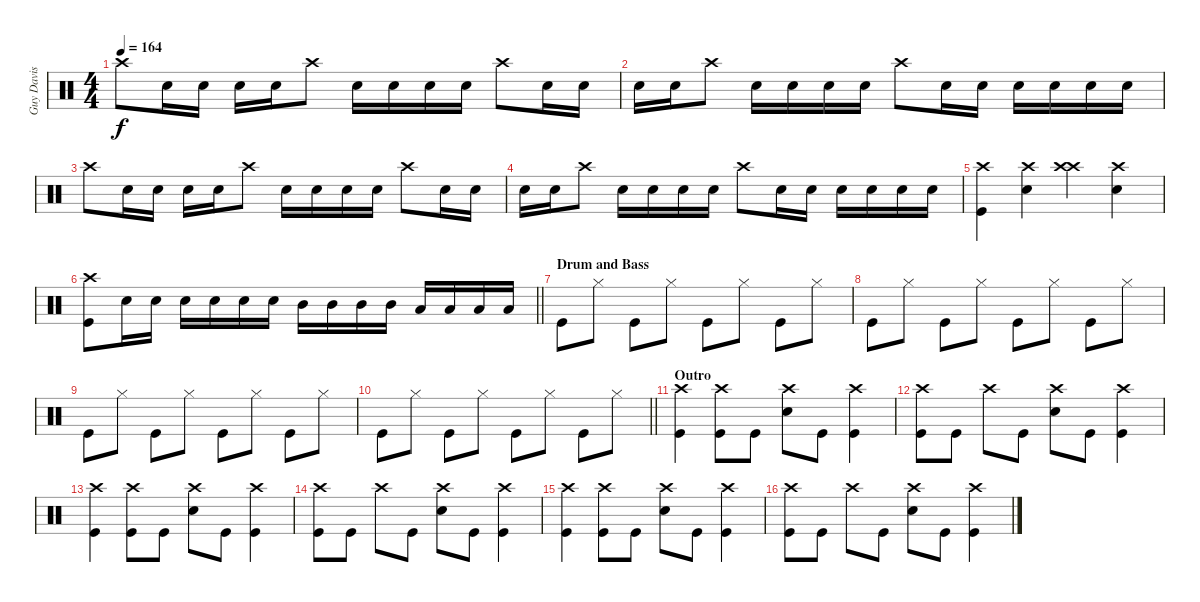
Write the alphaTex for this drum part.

\track ("Guy Davis" "Guy Davis") {instrument percussion}
\staff {score}
\articulation defaults
\ts (4 4)
\tempo 164
\clef neutral
\ks c "Crash high (hit)".8{dy f} "Snare (hit) 2".16 "Snare (hit) 2".16 "Snare (hit) 2".16 "Snare (hit) 2".16 "Crash high (hit)".8 "Snare (hit) 2".16 "Snare (hit) 2".16 "Snare (hit) 2".16 "Snare (hit) 2".16 "Crash high (hit)".8 "Snare (hit) 2".16 "Snare (hit) 2".16
|
"Snare (hit) 2".16 "Snare (hit) 2".16 "Crash high (hit)".8 "Snare (hit) 2".16 "Snare (hit) 2".16 "Snare (hit) 2".16 "Snare (hit) 2".16 "Crash high (hit)".8 "Snare (hit) 2".16 "Snare (hit) 2".16 "Snare (hit) 2".16 "Snare (hit) 2".16 "Snare (hit) 2".16 "Snare (hit) 2".16 |
"Crash high (hit)".8 "Snare (hit) 2".16 "Snare (hit) 2".16 "Snare (hit) 2".16 "Snare (hit) 2".16 "Crash high (hit)".8 "Snare (hit) 2".16 "Snare (hit) 2".16 "Snare (hit) 2".16 "Snare (hit) 2".16 "Crash high (hit)".8 "Snare (hit) 2".16 "Snare (hit) 2".16 |
"Snare (hit) 2".16 "Snare (hit) 2".16 "Crash high (hit)".8 "Snare (hit) 2".16 "Snare (hit) 2".16 "Snare (hit) 2".16 "Snare (hit) 2".16 "Crash high (hit)".8 "Snare (hit) 2".16 "Snare (hit) 2".16 "Snare (hit) 2".16 "Snare (hit) 2".16 "Snare (hit) 2".16 "Snare (hit) 2".16 |
("Crash high (hit)" "Kick (hit)").4 ("Crash high (hit)" "Snare (hit) 2").4 ("Crash high (hit)" "Crash high (hit)").4 ("Snare (hit) 2" "Crash high (hit)").4 |
\barLineRight lightlight
("Kick (hit)" "Crash high (hit)").8 "Snare (hit) 2".16 "Snare (hit) 2".16 "Snare (hit) 2".16 "Snare (hit) 2".16 "Snare (hit) 2".16 "Snare (hit) 2".16 "Mid Tom (hit)".16 "Mid Tom (hit)".16 "Mid Tom (hit)".16 "Mid Tom (hit)".16 "Low Tom (hit)".16 "Low Tom (hit)".16 "Low Tom (hit)".16 "Low Tom (hit)".16 |
\section ("" "Drum and Bass")
"Kick (hit)".8 "Hi-Hat (closed)".8 "Kick (hit)".8 "Hi-Hat (closed)".8 "Kick (hit)".8 "Hi-Hat (closed)".8 "Kick (hit)".8 "Hi-Hat (closed)".8 |
"Kick (hit)".8 "Hi-Hat (closed)".8 "Kick (hit)".8 "Hi-Hat (closed)".8 "Kick (hit)".8 "Hi-Hat (closed)".8 "Kick (hit)".8 "Hi-Hat (closed)".8 |
"Kick (hit)".8 "Hi-Hat (closed)".8 "Kick (hit)".8 "Hi-Hat (closed)".8 "Kick (hit)".8 "Hi-Hat (closed)".8 "Kick (hit)".8 "Hi-Hat (closed)".8 |
\barLineRight lightlight "Kick (hit)".8 "Hi-Hat (closed)".8 "Kick (hit)".8 "Hi-Hat (closed)".8 "Kick (hit)".8 "Hi-Hat (closed)".8 "Kick (hit)".8 "Hi-Hat (closed)".8
|
\section ("" "Outro")
("Crash high (hit)" "Kick (hit)").4 ("Crash high (hit)" "Kick (hit)").8 "Kick (hit)".8 ("Crash high (hit)" "Snare (hit) 2").8 "Kick (hit)".8 ("Crash high (hit)" "Kick (hit)").4 |
("Crash high (hit)" "Kick (hit)").8 "Kick (hit)".8 "Crash high (hit)".8 "Kick (hit)".8 ("Crash high (hit)" "Snare (hit) 2").8 "Kick (hit)".8 ("Crash high (hit)" "Kick (hit)").4 |
("Crash high (hit)" "Kick (hit)").4 ("Crash high (hit)" "Kick (hit)").8 "Kick (hit)".8 ("Crash high (hit)" "Snare (hit) 2").8 "Kick (hit)".8 ("Crash high (hit)" "Kick (hit)").4 |
("Crash high (hit)" "Kick (hit)").8 "Kick (hit)".8 "Crash high (hit)".8 "Kick (hit)".8 ("Crash high (hit)" "Snare (hit) 2").8 "Kick (hit)".8 ("Crash high (hit)" "Kick (hit)").4 |
("Crash high (hit)" "Kick (hit)").4 ("Crash high (hit)" "Kick (hit)").8 "Kick (hit)".8 ("Crash high (hit)" "Snare (hit) 2").8 "Kick (hit)".8 ("Crash high (hit)" "Kick (hit)").4 |
("Crash high (hit)" "Kick (hit)").8 "Kick (hit)".8 "Crash high (hit)".8 "Kick (hit)".8 ("Crash high (hit)" "Snare (hit) 2").8 "Kick (hit)".8 ("Crash high (hit)" "Kick (hit)").4
